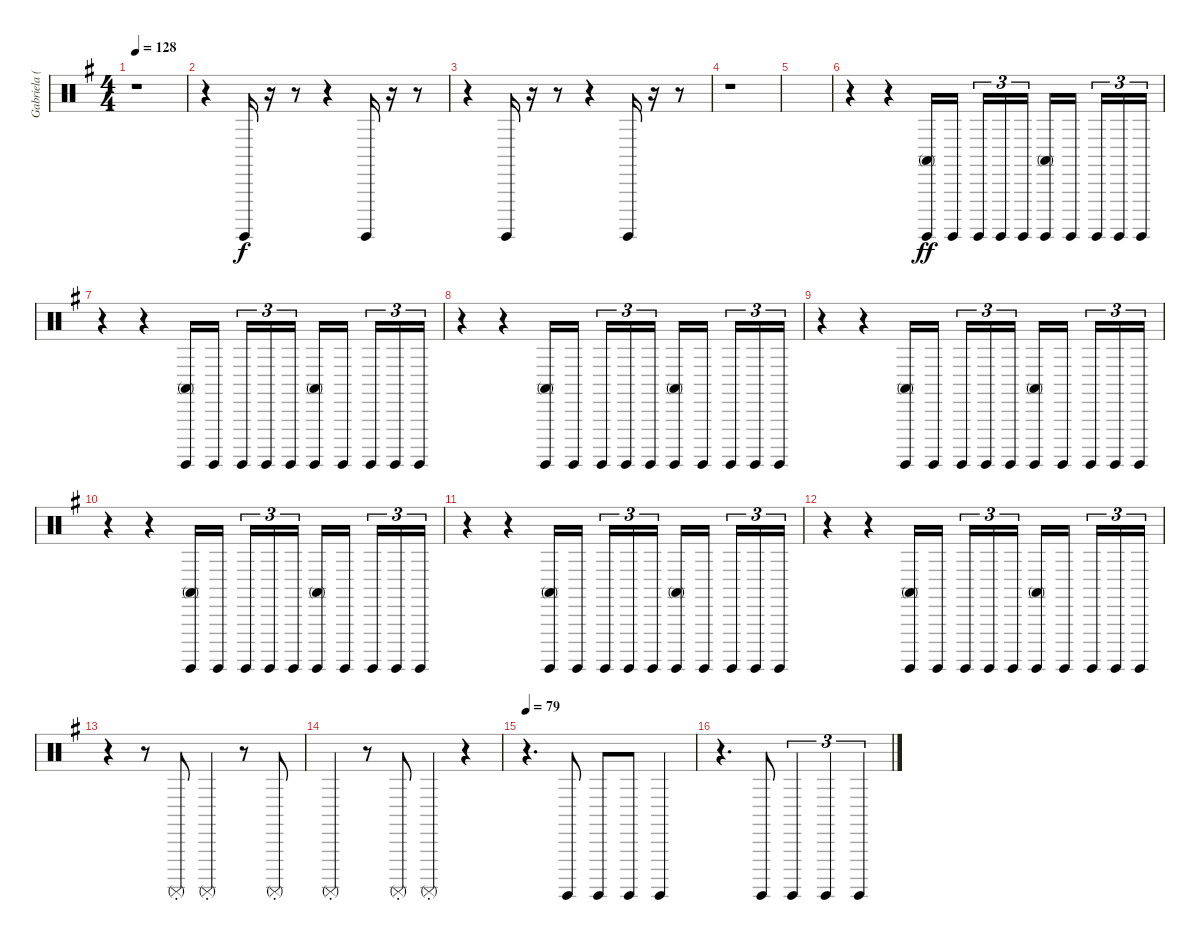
\track ("Gabriela (Percussion)" "Gabriela (") {instrument percussion}
\staff {score}
\articulation defaults
\ts (4 4)
\tempo 128
\clef neutral
\ks eminor
r.1{dy f} |
r.4 "Surdo (hit)".16 r.16 r.8 r.4 "Surdo (hit)".16 r.16 r.8 |
r.4 "Surdo (hit)".16 r.16 r.8 r.4 "Surdo (hit)".16 r.16 r.8 |
r.1 |
|
r.4 r.4 ("Conga high (mute)" "Surdo (hit)").16{dy ff} "Surdo (hit)".16{beam splitsecondary} "Surdo (hit)".16{tu (3 2)} "Surdo (hit)".16{tu (3 2)} "Surdo (hit)".16{tu (3 2)} ("Conga high (mute)" "Surdo (hit)").16 "Surdo (hit)".16{beam splitsecondary} "Surdo (hit)".16{tu (3 2)} "Surdo (hit)".16{tu (3 2)} "Surdo (hit)".16{tu (3 2)} |
r.4 r.4 ("Conga high (mute)" "Surdo (hit)").16 "Surdo (hit)".16{beam splitsecondary} "Surdo (hit)".16{tu (3 2)} "Surdo (hit)".16{tu (3 2)} "Surdo (hit)".16{tu (3 2)} ("Conga high (mute)" "Surdo (hit)").16 "Surdo (hit)".16{beam splitsecondary} "Surdo (hit)".16{tu (3 2)} "Surdo (hit)".16{tu (3 2)} "Surdo (hit)".16{tu (3 2)} |
r.4 r.4 ("Conga high (mute)" "Surdo (hit)").16 "Surdo (hit)".16{beam splitsecondary} "Surdo (hit)".16{tu (3 2)} "Surdo (hit)".16{tu (3 2)} "Surdo (hit)".16{tu (3 2)} ("Conga high (mute)" "Surdo (hit)").16 "Surdo (hit)".16{beam splitsecondary} "Surdo (hit)".16{tu (3 2)} "Surdo (hit)".16{tu (3 2)} "Surdo (hit)".16{tu (3 2)} |
r.4 r.4 ("Conga high (mute)" "Surdo (hit)").16 "Surdo (hit)".16{beam splitsecondary} "Surdo (hit)".16{tu (3 2)} "Surdo (hit)".16{tu (3 2)} "Surdo (hit)".16{tu (3 2)} ("Conga high (mute)" "Surdo (hit)").16 "Surdo (hit)".16{beam splitsecondary} "Surdo (hit)".16{tu (3 2)} "Surdo (hit)".16{tu (3 2)} "Surdo (hit)".16{tu (3 2)} |
r.4 r.4 ("Conga high (mute)" "Surdo (hit)").16 "Surdo (hit)".16{beam splitsecondary} "Surdo (hit)".16{tu (3 2)} "Surdo (hit)".16{tu (3 2)} "Surdo (hit)".16{tu (3 2)} ("Conga high (mute)" "Surdo (hit)").16 "Surdo (hit)".16{beam splitsecondary} "Surdo (hit)".16{tu (3 2)} "Surdo (hit)".16{tu (3 2)} "Surdo (hit)".16{tu (3 2)} |
r.4 r.4 ("Conga high (mute)" "Surdo (hit)").16 "Surdo (hit)".16{beam splitsecondary} "Surdo (hit)".16{tu (3 2)} "Surdo (hit)".16{tu (3 2)} "Surdo (hit)".16{tu (3 2)} ("Conga high (mute)" "Surdo (hit)").16 "Surdo (hit)".16{beam splitsecondary} "Surdo (hit)".16{tu (3 2)} "Surdo (hit)".16{tu (3 2)} "Surdo (hit)".16{tu (3 2)} |
r.4 r.4 ("Conga high (mute)" "Surdo (hit)").16 "Surdo (hit)".16{beam splitsecondary} "Surdo (hit)".16{tu (3 2)} "Surdo (hit)".16{tu (3 2)} "Surdo (hit)".16{tu (3 2)} ("Conga high (mute)" "Surdo (hit)").16 "Surdo (hit)".16{beam splitsecondary} "Surdo (hit)".16{tu (3 2)} "Surdo (hit)".16{tu (3 2)} "Surdo (hit)".16{tu (3 2)} |
r.4 r.8 "Surdo (mute)"{st}.8 "Surdo (mute)"{st}.4 r.8 "Surdo (mute)"{st}.8 |
"Surdo (mute)"{st}.4 r.8 "Surdo (mute)"{st}.8 "Surdo (mute)"{st}.4 r.4 |
\tempo 79
r.4{d} "Surdo (hit)".8 "Surdo (hit)".8 "Surdo (hit)".8 "Surdo (hit)".4 |
r.4{d} "Surdo (hit)".8 "Surdo (hit)".4{tu (3 2)} "Surdo (hit)".4{tu (3 2)} "Surdo (hit)".4{tu (3 2)}
